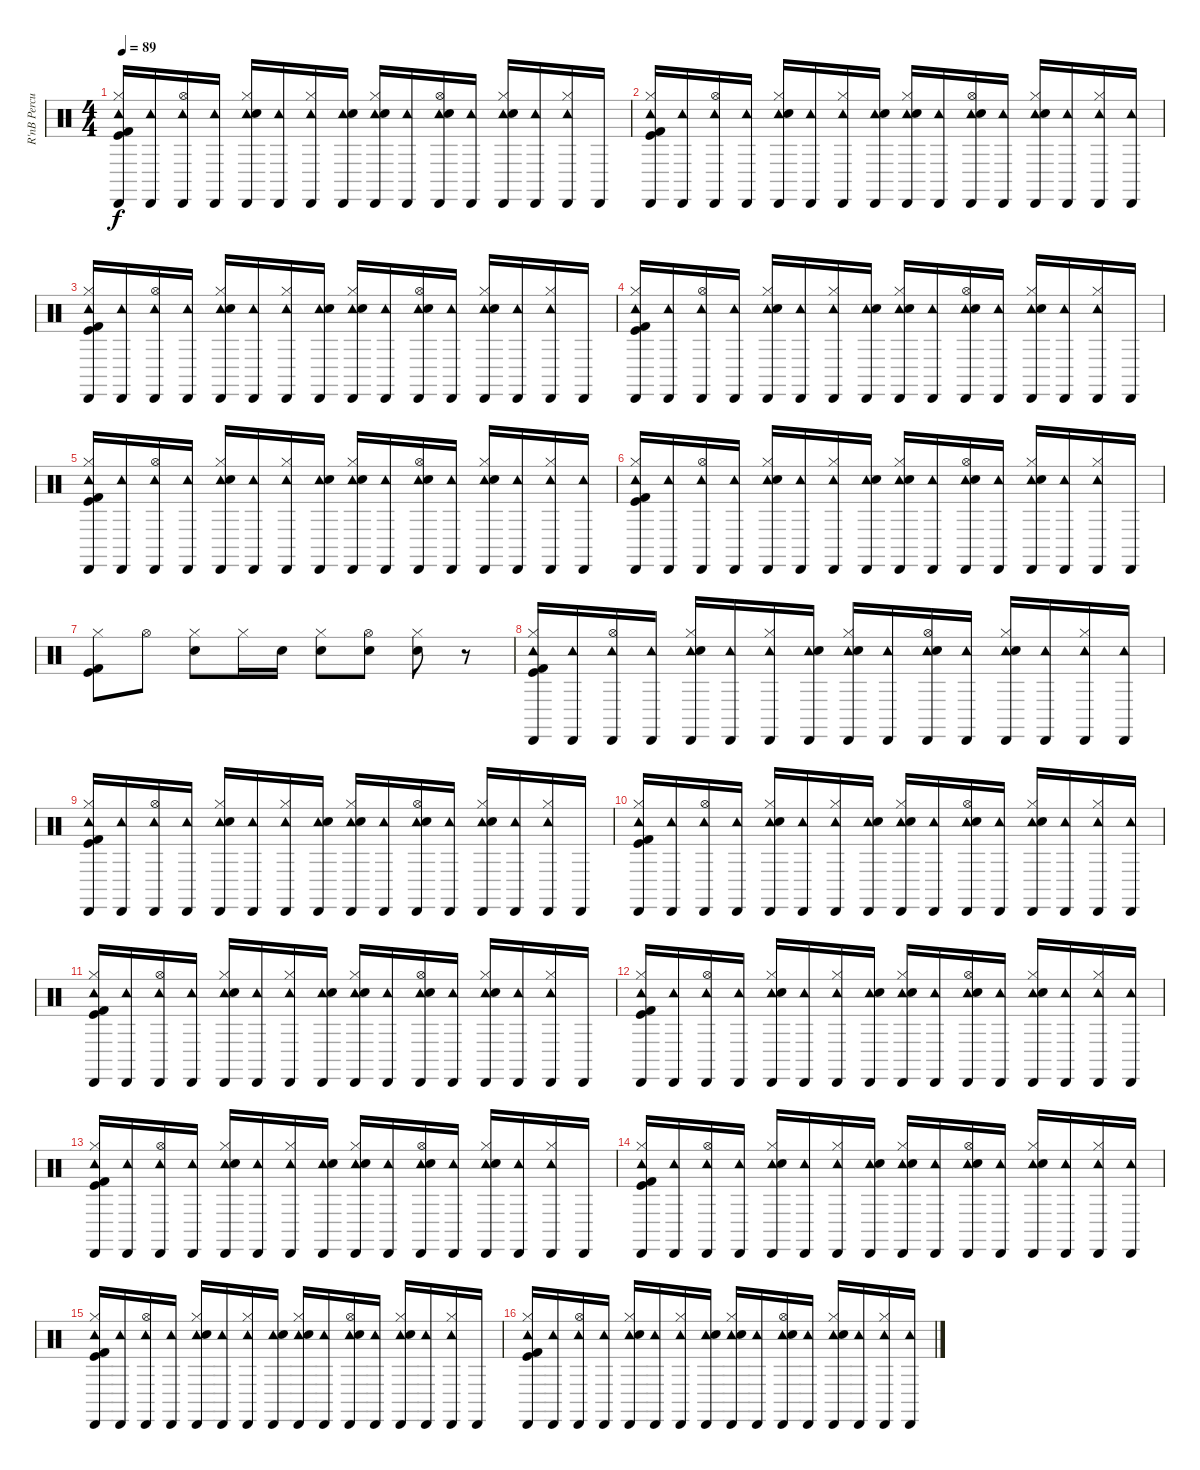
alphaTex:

\track ("R'nB Percussion" "R'nB Percu") {instrument percussion}
\staff {score}
\articulation defaults
\ts (4 4)
\tempo 89
\clef neutral
\ks c
("Cabasa (hit)" "Tambourine (hit)" "Kick (hit)" "Kick (hit) 2" "Hi-Hat (closed)").16{dy f} ("Tambourine (hit)" "Cabasa (hit)").16 ("Tambourine (hit)" "Cabasa (hit)" "Hi-Hat (open)").16 ("Tambourine (hit)" "Cabasa (hit)").16 ("Cabasa (hit)" "Tambourine (hit)" "Hi-Hat (closed)" "Hand Clap (hit)").16 ("Cabasa (hit)" "Tambourine (hit)").16 ("Cabasa (hit)" "Tambourine (hit)" "Hi-Hat (closed)").16 ("Cabasa (hit)" "Tambourine (hit)" "Hand Clap (hit)").16 ("Tambourine (hit)" "Cabasa (hit)" "Hi-Hat (closed)" "Hand Clap (hit)").16 ("Cabasa (hit)" "Tambourine (hit)").16 ("Tambourine (hit)" "Cabasa (hit)" "Hand Clap (hit)" "Hi-Hat (open)").16 ("Cabasa (hit)" "Tambourine (hit)").16 ("Cabasa (hit)" "Tambourine (hit)" "Hi-Hat (closed)" "Hand Clap (hit)").16 ("Cabasa (hit)" "Tambourine (hit)").16 ("Tambourine (hit)" "Cabasa (hit)" "Hi-Hat (closed)").16 "Cabasa (hit)".16 |
("Cabasa (hit)" "Tambourine (hit)" "Kick (hit) 2" "Hi-Hat (closed)" "Kick (hit)").16 ("Tambourine (hit)" "Cabasa (hit)").16 ("Cabasa (hit)" "Tambourine (hit)" "Hi-Hat (open)").16 ("Cabasa (hit)" "Tambourine (hit)").16 ("Cabasa (hit)" "Tambourine (hit)" "Hi-Hat (closed)" "Hand Clap (hit)").16 ("Cabasa (hit)" "Tambourine (hit)").16 ("Tambourine (hit)" "Cabasa (hit)" "Hi-Hat (closed)").16 ("Cabasa (hit)" "Tambourine (hit)" "Hand Clap (hit)").16 ("Cabasa (hit)" "Tambourine (hit)" "Hi-Hat (closed)" "Hand Clap (hit)").16 ("Cabasa (hit)" "Tambourine (hit)").16 ("Tambourine (hit)" "Cabasa (hit)" "Hi-Hat (open)" "Hand Clap (hit)").16 ("Cabasa (hit)" "Tambourine (hit)").16 ("Cabasa (hit)" "Tambourine (hit)" "Hand Clap (hit)" "Hi-Hat (closed)").16 ("Cabasa (hit)" "Tambourine (hit)").16 ("Cabasa (hit)" "Tambourine (hit)" "Hi-Hat (closed)").16 ("Cabasa (hit)" "Tambourine (hit)").16 |
("Cabasa (hit)" "Tambourine (hit)" "Hi-Hat (closed)" "Kick (hit)" "Kick (hit) 2").16 ("Tambourine (hit)" "Cabasa (hit)").16 ("Tambourine (hit)" "Cabasa (hit)" "Hi-Hat (open)").16 ("Cabasa (hit)" "Tambourine (hit)").16 ("Tambourine (hit)" "Cabasa (hit)" "Hand Clap (hit)" "Hi-Hat (closed)").16 ("Tambourine (hit)" "Cabasa (hit)").16 ("Tambourine (hit)" "Cabasa (hit)" "Hi-Hat (closed)").16 ("Cabasa (hit)" "Tambourine (hit)" "Hand Clap (hit)").16 ("Tambourine (hit)" "Cabasa (hit)" "Hand Clap (hit)" "Hi-Hat (closed)").16 ("Cabasa (hit)" "Tambourine (hit)").16 ("Tambourine (hit)" "Cabasa (hit)" "Hand Clap (hit)" "Hi-Hat (open)").16 ("Cabasa (hit)" "Tambourine (hit)").16 ("Cabasa (hit)" "Tambourine (hit)" "Hi-Hat (closed)" "Hand Clap (hit)").16 ("Cabasa (hit)" "Tambourine (hit)").16 ("Cabasa (hit)" "Tambourine (hit)" "Hi-Hat (closed)").16 "Cabasa (hit)".16 |
("Tambourine (hit)" "Cabasa (hit)" "Kick (hit) 2" "Hi-Hat (closed)" "Kick (hit)").16 ("Cabasa (hit)" "Tambourine (hit)").16 ("Tambourine (hit)" "Cabasa (hit)" "Hi-Hat (open)").16 ("Tambourine (hit)" "Cabasa (hit)").16 ("Tambourine (hit)" "Cabasa (hit)" "Hi-Hat (closed)" "Hand Clap (hit)").16 ("Cabasa (hit)" "Tambourine (hit)").16 ("Tambourine (hit)" "Cabasa (hit)" "Hi-Hat (closed)").16 ("Tambourine (hit)" "Cabasa (hit)" "Hand Clap (hit)").16 ("Cabasa (hit)" "Tambourine (hit)" "Hi-Hat (closed)" "Hand Clap (hit)").16 ("Tambourine (hit)" "Cabasa (hit)").16 ("Tambourine (hit)" "Cabasa (hit)" "Hand Clap (hit)" "Hi-Hat (open)").16 ("Tambourine (hit)" "Cabasa (hit)").16 ("Tambourine (hit)" "Cabasa (hit)" "Hi-Hat (closed)" "Hand Clap (hit)").16 ("Tambourine (hit)" "Cabasa (hit)").16 ("Tambourine (hit)" "Cabasa (hit)" "Hi-Hat (closed)").16 "Cabasa (hit)".16 |
("Cabasa (hit)" "Tambourine (hit)" "Kick (hit)" "Kick (hit) 2" "Hi-Hat (closed)").16 ("Cabasa (hit)" "Tambourine (hit)").16 ("Cabasa (hit)" "Tambourine (hit)" "Hi-Hat (open)").16 ("Tambourine (hit)" "Cabasa (hit)").16 ("Cabasa (hit)" "Tambourine (hit)" "Hi-Hat (closed)" "Hand Clap (hit)").16 ("Cabasa (hit)" "Tambourine (hit)").16 ("Cabasa (hit)" "Tambourine (hit)" "Hi-Hat (closed)").16 ("Cabasa (hit)" "Tambourine (hit)" "Hand Clap (hit)").16 ("Cabasa (hit)" "Tambourine (hit)" "Hi-Hat (closed)" "Hand Clap (hit)").16 ("Tambourine (hit)" "Cabasa (hit)").16 ("Cabasa (hit)" "Tambourine (hit)" "Hi-Hat (open)" "Hand Clap (hit)").16 ("Tambourine (hit)" "Cabasa (hit)").16 ("Cabasa (hit)" "Tambourine (hit)" "Hand Clap (hit)" "Hi-Hat (closed)").16 ("Cabasa (hit)" "Tambourine (hit)").16 ("Tambourine (hit)" "Cabasa (hit)" "Hi-Hat (closed)").16 ("Tambourine (hit)" "Cabasa (hit)").16 |
("Tambourine (hit)" "Cabasa (hit)" "Kick (hit)" "Kick (hit) 2" "Hi-Hat (closed)").16 ("Cabasa (hit)" "Tambourine (hit)").16 ("Tambourine (hit)" "Cabasa (hit)" "Hi-Hat (open)").16 ("Cabasa (hit)" "Tambourine (hit)").16 ("Tambourine (hit)" "Cabasa (hit)" "Hi-Hat (closed)" "Hand Clap (hit)").16 ("Tambourine (hit)" "Cabasa (hit)").16 ("Tambourine (hit)" "Cabasa (hit)" "Hi-Hat (closed)").16 ("Cabasa (hit)" "Tambourine (hit)" "Hand Clap (hit)").16 ("Cabasa (hit)" "Tambourine (hit)" "Hand Clap (hit)" "Hi-Hat (closed)").16 ("Tambourine (hit)" "Cabasa (hit)").16 ("Tambourine (hit)" "Cabasa (hit)" "Hand Clap (hit)" "Hi-Hat (open)").16 ("Cabasa (hit)" "Tambourine (hit)").16 ("Cabasa (hit)" "Tambourine (hit)" "Hi-Hat (closed)" "Hand Clap (hit)").16 ("Cabasa (hit)" "Tambourine (hit)").16 ("Cabasa (hit)" "Tambourine (hit)" "Hi-Hat (closed)").16 "Cabasa (hit)".16 |
("Hi-Hat (closed)" "Kick (hit)" "Kick (hit) 2").8 "Hi-Hat (open)".8 ("Hand Clap (hit)" "Hi-Hat (closed)").8 "Hi-Hat (closed)".16 "Hand Clap (hit)".16 ("Hand Clap (hit)" "Hi-Hat (closed)").8 ("Hand Clap (hit)" "Hi-Hat (open)").8 ("Hand Clap (hit)" "Hi-Hat (closed)").8 r.8 |
("Tambourine (hit)" "Cabasa (hit)" "Kick (hit)" "Kick (hit) 2" "Hi-Hat (closed)").16 ("Tambourine (hit)" "Cabasa (hit)").16 ("Cabasa (hit)" "Tambourine (hit)" "Hi-Hat (open)").16 ("Cabasa (hit)" "Tambourine (hit)").16 ("Tambourine (hit)" "Cabasa (hit)" "Hand Clap (hit)" "Hi-Hat (closed)").16 ("Cabasa (hit)" "Tambourine (hit)").16 ("Tambourine (hit)" "Cabasa (hit)" "Hi-Hat (closed)").16 ("Cabasa (hit)" "Tambourine (hit)" "Hand Clap (hit)").16 ("Tambourine (hit)" "Cabasa (hit)" "Hand Clap (hit)" "Hi-Hat (closed)").16 ("Cabasa (hit)" "Tambourine (hit)").16 ("Tambourine (hit)" "Cabasa (hit)" "Hand Clap (hit)" "Hi-Hat (open)").16 ("Cabasa (hit)" "Tambourine (hit)").16 ("Cabasa (hit)" "Tambourine (hit)" "Hi-Hat (closed)" "Hand Clap (hit)").16 ("Cabasa (hit)" "Tambourine (hit)").16 ("Tambourine (hit)" "Cabasa (hit)" "Hi-Hat (closed)").16 ("Tambourine (hit)" "Cabasa (hit)").16 |
("Cabasa (hit)" "Tambourine (hit)" "Kick (hit)" "Kick (hit) 2" "Hi-Hat (closed)").16 ("Tambourine (hit)" "Cabasa (hit)").16 ("Cabasa (hit)" "Tambourine (hit)" "Hi-Hat (open)").16 ("Cabasa (hit)" "Tambourine (hit)").16 ("Tambourine (hit)" "Cabasa (hit)" "Hand Clap (hit)" "Hi-Hat (closed)").16 ("Tambourine (hit)" "Cabasa (hit)").16 ("Tambourine (hit)" "Cabasa (hit)" "Hi-Hat (closed)").16 ("Tambourine (hit)" "Cabasa (hit)" "Hand Clap (hit)").16 ("Tambourine (hit)" "Cabasa (hit)" "Hi-Hat (closed)" "Hand Clap (hit)").16 ("Cabasa (hit)" "Tambourine (hit)").16 ("Tambourine (hit)" "Cabasa (hit)" "Hand Clap (hit)" "Hi-Hat (open)").16 ("Cabasa (hit)" "Tambourine (hit)").16 ("Tambourine (hit)" "Cabasa (hit)" "Hi-Hat (closed)" "Hand Clap (hit)").16 ("Tambourine (hit)" "Cabasa (hit)").16 ("Tambourine (hit)" "Cabasa (hit)" "Hi-Hat (closed)").16 "Cabasa (hit)".16 |
("Cabasa (hit)" "Tambourine (hit)" "Kick (hit)" "Hi-Hat (closed)" "Kick (hit) 2").16 ("Cabasa (hit)" "Tambourine (hit)").16 ("Cabasa (hit)" "Tambourine (hit)" "Hi-Hat (open)").16 ("Cabasa (hit)" "Tambourine (hit)").16 ("Cabasa (hit)" "Tambourine (hit)" "Hand Clap (hit)" "Hi-Hat (closed)").16 ("Cabasa (hit)" "Tambourine (hit)").16 ("Cabasa (hit)" "Tambourine (hit)" "Hi-Hat (closed)").16 ("Tambourine (hit)" "Cabasa (hit)" "Hand Clap (hit)").16 ("Cabasa (hit)" "Tambourine (hit)" "Hand Clap (hit)" "Hi-Hat (closed)").16 ("Tambourine (hit)" "Cabasa (hit)").16 ("Cabasa (hit)" "Tambourine (hit)" "Hi-Hat (open)" "Hand Clap (hit)").16 ("Tambourine (hit)" "Cabasa (hit)").16 ("Tambourine (hit)" "Cabasa (hit)" "Hand Clap (hit)" "Hi-Hat (closed)").16 ("Tambourine (hit)" "Cabasa (hit)").16 ("Tambourine (hit)" "Cabasa (hit)" "Hi-Hat (closed)").16 ("Cabasa (hit)" "Tambourine (hit)").16 |
("Tambourine (hit)" "Cabasa (hit)" "Kick (hit) 2" "Hi-Hat (closed)" "Kick (hit)").16 ("Tambourine (hit)" "Cabasa (hit)").16 ("Cabasa (hit)" "Tambourine (hit)" "Hi-Hat (open)").16 ("Cabasa (hit)" "Tambourine (hit)").16 ("Tambourine (hit)" "Cabasa (hit)" "Hand Clap (hit)" "Hi-Hat (closed)").16 ("Tambourine (hit)" "Cabasa (hit)").16 ("Cabasa (hit)" "Tambourine (hit)" "Hi-Hat (closed)").16 ("Tambourine (hit)" "Cabasa (hit)" "Hand Clap (hit)").16 ("Cabasa (hit)" "Tambourine (hit)" "Hi-Hat (closed)" "Hand Clap (hit)").16 ("Tambourine (hit)" "Cabasa (hit)").16 ("Cabasa (hit)" "Tambourine (hit)" "Hi-Hat (open)" "Hand Clap (hit)").16 ("Cabasa (hit)" "Tambourine (hit)").16 ("Tambourine (hit)" "Cabasa (hit)" "Hi-Hat (closed)" "Hand Clap (hit)").16 ("Tambourine (hit)" "Cabasa (hit)").16 ("Cabasa (hit)" "Tambourine (hit)" "Hi-Hat (closed)").16 "Cabasa (hit)".16 |
("Tambourine (hit)" "Cabasa (hit)" "Kick (hit)" "Kick (hit) 2" "Hi-Hat (closed)").16 ("Cabasa (hit)" "Tambourine (hit)").16 ("Cabasa (hit)" "Tambourine (hit)" "Hi-Hat (open)").16 ("Cabasa (hit)" "Tambourine (hit)").16 ("Tambourine (hit)" "Cabasa (hit)" "Hand Clap (hit)" "Hi-Hat (closed)").16 ("Tambourine (hit)" "Cabasa (hit)").16 ("Cabasa (hit)" "Tambourine (hit)" "Hi-Hat (closed)").16 ("Tambourine (hit)" "Cabasa (hit)" "Hand Clap (hit)").16 ("Cabasa (hit)" "Tambourine (hit)" "Hi-Hat (closed)" "Hand Clap (hit)").16 ("Tambourine (hit)" "Cabasa (hit)").16 ("Cabasa (hit)" "Tambourine (hit)" "Hi-Hat (open)" "Hand Clap (hit)").16 ("Cabasa (hit)" "Tambourine (hit)").16 ("Cabasa (hit)" "Tambourine (hit)" "Hand Clap (hit)" "Hi-Hat (closed)").16 ("Cabasa (hit)" "Tambourine (hit)").16 ("Cabasa (hit)" "Tambourine (hit)" "Hi-Hat (closed)").16 ("Tambourine (hit)" "Cabasa (hit)").16 |
("Tambourine (hit)" "Cabasa (hit)" "Kick (hit)" "Kick (hit) 2" "Hi-Hat (closed)").16 ("Tambourine (hit)" "Cabasa (hit)").16 ("Tambourine (hit)" "Cabasa (hit)" "Hi-Hat (open)").16 ("Cabasa (hit)" "Tambourine (hit)").16 ("Cabasa (hit)" "Tambourine (hit)" "Hi-Hat (closed)" "Hand Clap (hit)").16 ("Cabasa (hit)" "Tambourine (hit)").16 ("Cabasa (hit)" "Tambourine (hit)" "Hi-Hat (closed)").16 ("Tambourine (hit)" "Cabasa (hit)" "Hand Clap (hit)").16 ("Cabasa (hit)" "Tambourine (hit)" "Hand Clap (hit)" "Hi-Hat (closed)").16 ("Tambourine (hit)" "Cabasa (hit)").16 ("Tambourine (hit)" "Cabasa (hit)" "Hand Clap (hit)" "Hi-Hat (open)").16 ("Cabasa (hit)" "Tambourine (hit)").16 ("Tambourine (hit)" "Cabasa (hit)" "Hi-Hat (closed)" "Hand Clap (hit)").16 ("Cabasa (hit)" "Tambourine (hit)").16 ("Cabasa (hit)" "Tambourine (hit)" "Hi-Hat (closed)").16 "Cabasa (hit)".16 |
("Cabasa (hit)" "Tambourine (hit)" "Kick (hit)" "Kick (hit) 2" "Hi-Hat (closed)").16 ("Cabasa (hit)" "Tambourine (hit)").16 ("Cabasa (hit)" "Tambourine (hit)" "Hi-Hat (open)").16 ("Tambourine (hit)" "Cabasa (hit)").16 ("Cabasa (hit)" "Tambourine (hit)" "Hi-Hat (closed)" "Hand Clap (hit)").16 ("Cabasa (hit)" "Tambourine (hit)").16 ("Cabasa (hit)" "Tambourine (hit)" "Hi-Hat (closed)").16 ("Cabasa (hit)" "Tambourine (hit)" "Hand Clap (hit)").16 ("Cabasa (hit)" "Tambourine (hit)" "Hi-Hat (closed)" "Hand Clap (hit)").16 ("Tambourine (hit)" "Cabasa (hit)").16 ("Cabasa (hit)" "Tambourine (hit)" "Hi-Hat (open)" "Hand Clap (hit)").16 ("Tambourine (hit)" "Cabasa (hit)").16 ("Cabasa (hit)" "Tambourine (hit)" "Hand Clap (hit)" "Hi-Hat (closed)").16 ("Cabasa (hit)" "Tambourine (hit)").16 ("Tambourine (hit)" "Cabasa (hit)" "Hi-Hat (closed)").16 ("Tambourine (hit)" "Cabasa (hit)").16 |
("Tambourine (hit)" "Cabasa (hit)" "Kick (hit)" "Kick (hit) 2" "Hi-Hat (closed)").16 ("Tambourine (hit)" "Cabasa (hit)").16 ("Tambourine (hit)" "Cabasa (hit)" "Hi-Hat (open)").16 ("Cabasa (hit)" "Tambourine (hit)").16 ("Cabasa (hit)" "Tambourine (hit)" "Hi-Hat (closed)" "Hand Clap (hit)").16 ("Cabasa (hit)" "Tambourine (hit)").16 ("Cabasa (hit)" "Tambourine (hit)" "Hi-Hat (closed)").16 ("Tambourine (hit)" "Cabasa (hit)" "Hand Clap (hit)").16 ("Cabasa (hit)" "Tambourine (hit)" "Hand Clap (hit)" "Hi-Hat (closed)").16 ("Tambourine (hit)" "Cabasa (hit)").16 ("Tambourine (hit)" "Cabasa (hit)" "Hand Clap (hit)" "Hi-Hat (open)").16 ("Cabasa (hit)" "Tambourine (hit)").16 ("Tambourine (hit)" "Cabasa (hit)" "Hi-Hat (closed)" "Hand Clap (hit)").16 ("Cabasa (hit)" "Tambourine (hit)").16 ("Cabasa (hit)" "Tambourine (hit)" "Hi-Hat (closed)").16 "Cabasa (hit)".16 |
("Tambourine (hit)" "Cabasa (hit)" "Hi-Hat (closed)" "Kick (hit)" "Kick (hit) 2").16 ("Cabasa (hit)" "Tambourine (hit)").16 ("Tambourine (hit)" "Cabasa (hit)" "Hi-Hat (open)").16 ("Cabasa (hit)" "Tambourine (hit)").16 ("Cabasa (hit)" "Tambourine (hit)" "Hand Clap (hit)" "Hi-Hat (closed)").16 ("Tambourine (hit)" "Cabasa (hit)").16 ("Tambourine (hit)" "Cabasa (hit)" "Hi-Hat (closed)").16 ("Tambourine (hit)" "Cabasa (hit)" "Hand Clap (hit)").16 ("Tambourine (hit)" "Cabasa (hit)" "Hi-Hat (closed)" "Hand Clap (hit)").16 ("Cabasa (hit)" "Tambourine (hit)").16 ("Tambourine (hit)" "Cabasa (hit)" "Hi-Hat (open)" "Hand Clap (hit)").16 ("Cabasa (hit)" "Tambourine (hit)").16 ("Tambourine (hit)" "Cabasa (hit)" "Hand Clap (hit)" "Hi-Hat (closed)").16 ("Cabasa (hit)" "Tambourine (hit)").16 ("Cabasa (hit)" "Tambourine (hit)" "Hi-Hat (closed)").16 ("Tambourine (hit)" "Cabasa (hit)").16
